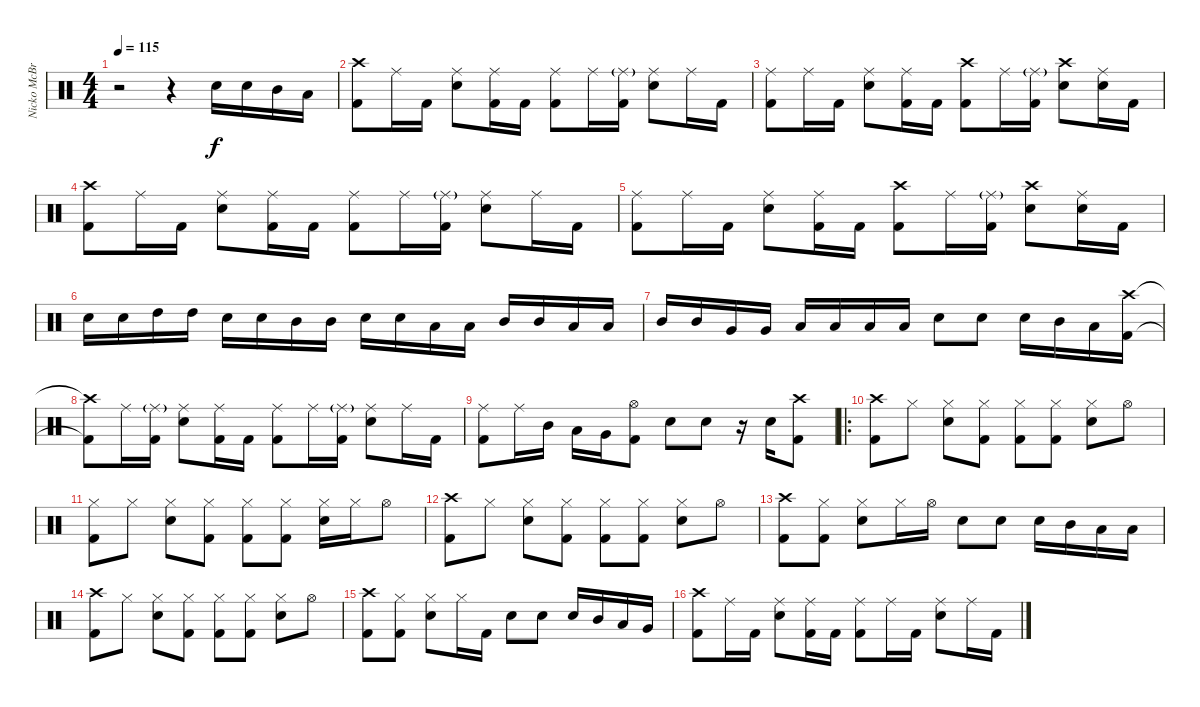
\track ("Nicko McBrain" "Nicko McBr") {instrument percussion}
\staff {score}
\articulation defaults
\ts (4 4)
\tempo 115
\clef neutral
\ks c
r.2{dy f} r.4 "Electric Snare (hit)".16 "Electric Snare (hit)".16 "Mid Tom (hit)".16 "Low Tom (hit)".16 |
("Crash high (hit)" "Kick (hit) 2").8 "Ride (middle)".16 "Kick (hit) 2".16 ("Ride (middle)" "Electric Snare (hit)").8 ("Ride (middle)" "Kick (hit) 2").16 "Kick (hit) 2".16 ("Ride (middle)" "Kick (hit) 2").8 "Ride (middle)".16 ("Ride (middle)"{g} "Kick (hit) 2").16 ("Ride (middle)" "Electric Snare (hit)").8 "Ride (middle)".16 "Kick (hit) 2".16 |
("Ride (middle)" "Kick (hit) 2").8 "Ride (middle)".16 "Kick (hit) 2".16 ("Ride (middle)" "Electric Snare (hit)").8 ("Ride (middle)" "Kick (hit) 2").16 "Kick (hit) 2".16 ("Crash high (hit)" "Kick (hit) 2").8 "Ride (middle)".16 ("Ride (middle)"{g} "Kick (hit) 2").16 ("Crash high (hit)" "Electric Snare (hit)").8 ("Ride (middle)" "Electric Snare (hit)").16 "Kick (hit) 2".16 |
("Crash high (hit)" "Kick (hit) 2").8 "Ride (middle)".16 "Kick (hit) 2".16 ("Ride (middle)" "Electric Snare (hit)").8 ("Ride (middle)" "Kick (hit) 2").16 "Kick (hit) 2".16 ("Ride (middle)" "Kick (hit) 2").8 "Ride (middle)".16 ("Ride (middle)"{g} "Kick (hit) 2").16 ("Ride (middle)" "Electric Snare (hit)").8 "Ride (middle)".16 "Kick (hit) 2".16 |
("Ride (middle)" "Kick (hit) 2").8 "Ride (middle)".16 "Kick (hit) 2".16 ("Ride (middle)" "Electric Snare (hit)").8 ("Ride (middle)" "Kick (hit) 2").16 "Kick (hit) 2".16 ("Crash high (hit)" "Kick (hit) 2").8 "Ride (middle)".16 ("Ride (middle)"{g} "Kick (hit) 2").16 ("Crash high (hit)" "Electric Snare (hit)").8 ("Ride (middle)" "Electric Snare (hit)").16 "Kick (hit) 2".16 |
"Electric Snare (hit)".16 "Electric Snare (hit)".16 "High Tom (hit)".16 "High Tom (hit)".16 "Electric Snare (hit)".16 "Electric Snare (hit)".16 "Mid Tom (hit)".16 "Mid Tom (hit)".16 "Electric Snare (hit)".16 "Electric Snare (hit)".16 "Low Tom (hit)".16 "Low Tom (hit)".16 "Mid Tom (hit)".16 "Mid Tom (hit)".16 "Low Tom (hit)".16 "Low Tom (hit)".16 |
"Mid Tom (hit)".16 "Mid Tom (hit)".16 "Very Low Tom (hit)".16 "Very Low Tom (hit)".16 "Low Tom (hit)".16 "Low Tom (hit)".16 "Low Floor Tom (hit)".16 "Low Floor Tom (hit)".16 "Electric Snare (hit)".8 "Electric Snare (hit)".8 "Electric Snare (hit)".16 "Mid Tom (hit)".16 "Low Tom (hit)".16 ("Crash high (hit)" "Kick (hit) 2").16 |
("Crash high (hit)"{t} "Kick (hit) 2"{t}).8 "Ride (middle)".16 ("Ride (middle)"{g} "Kick (hit) 2").16 ("Ride (middle)" "Electric Snare (hit)").8{beam Down} ("Ride (middle)" "Kick (hit) 2").16{beam Down} "Kick (hit) 2".16{beam Down} ("Ride (middle)" "Kick (hit) 2").8 "Ride (middle)".16 ("Ride (middle)"{g} "Kick (hit) 2").16 ("Ride (middle)" "Electric Snare (hit)").8 "Ride (middle)".16 "Kick (hit) 2".16 |
("Ride (middle)" "Kick (hit) 2").8 "Ride (middle)".16 "Mid Tom (hit)".16 "Low Tom (hit)".16 "Very Low Tom (hit)".16 ("Hi-Hat (open)" "Kick (hit) 2").8 "Electric Snare (hit)".8 "Electric Snare (hit)".8 r.16 "Electric Snare (hit)".16 ("Crash high (hit)" "Kick (hit) 2").8 |
\ro
("Crash high (hit)" "Kick (hit) 2").8 "Hi-Hat (closed)".8 ("Hi-Hat (closed)" "Electric Snare (hit)").8 ("Hi-Hat (closed)" "Kick (hit) 2").8 ("Hi-Hat (closed)" "Kick (hit) 2").8 ("Hi-Hat (closed)" "Kick (hit) 2").8 ("Hi-Hat (closed)" "Electric Snare (hit)").8 "Hi-Hat (open)".8 |
("Hi-Hat (closed)" "Kick (hit) 2").8 "Hi-Hat (closed)".8 ("Hi-Hat (closed)" "Electric Snare (hit)").8 ("Hi-Hat (closed)" "Kick (hit) 2").8 ("Hi-Hat (closed)" "Kick (hit) 2").8 ("Hi-Hat (closed)" "Kick (hit) 2").8 ("Hi-Hat (closed)" "Electric Snare (hit)").16 "Hi-Hat (closed)".16 "Hi-Hat (open)".8 |
("Crash high (hit)" "Kick (hit) 2").8 "Hi-Hat (closed)".8 ("Hi-Hat (closed)" "Electric Snare (hit)").8 ("Hi-Hat (closed)" "Kick (hit) 2").8 ("Hi-Hat (closed)" "Kick (hit) 2").8 ("Hi-Hat (closed)" "Kick (hit) 2").8 ("Hi-Hat (closed)" "Electric Snare (hit)").8 "Hi-Hat (open)".8 |
("Crash high (hit)" "Kick (hit) 2").8 ("Hi-Hat (closed)" "Kick (hit) 2").8 ("Hi-Hat (closed)" "Electric Snare (hit)").8 "Hi-Hat (closed)".16 "Hi-Hat (open)".16 "Electric Snare (hit)".8 "Electric Snare (hit)".8 "Electric Snare (hit)".16 "Mid Tom (hit)".16 "Low Tom (hit)".16 "Low Tom (hit)".16 |
("Crash high (hit)" "Kick (hit) 2").8 "Hi-Hat (closed)".8 ("Hi-Hat (closed)" "Electric Snare (hit)").8 ("Hi-Hat (closed)" "Kick (hit) 2").8 ("Hi-Hat (closed)" "Kick (hit) 2").8 ("Hi-Hat (closed)" "Kick (hit) 2").8 ("Hi-Hat (closed)" "Electric Snare (hit)").8 "Hi-Hat (open)".8 |
("Crash high (hit)" "Kick (hit) 2").8 ("Hi-Hat (closed)" "Kick (hit) 2").8 ("Hi-Hat (closed)" "Electric Snare (hit)").8 "Hi-Hat (closed)".16 "Kick (hit) 2".16 "Electric Snare (hit)".8 "Electric Snare (hit)".8 "Electric Snare (hit)".16 "Mid Tom (hit)".16 "Low Tom (hit)".16 "Very Low Tom (hit)".16 |
("Crash high (hit)" "Kick (hit) 2").8 "Ride (middle)".16 "Kick (hit) 2".16 ("Ride (middle)" "Electric Snare (hit)").8 ("Ride (middle)" "Kick (hit) 2").16 "Kick (hit) 2".16 ("Ride (middle)" "Kick (hit) 2").8 "Ride (middle)".16 "Kick (hit) 2".16 ("Ride (middle)" "Electric Snare (hit)").8 "Ride (middle)".16 "Kick (hit) 2".16
